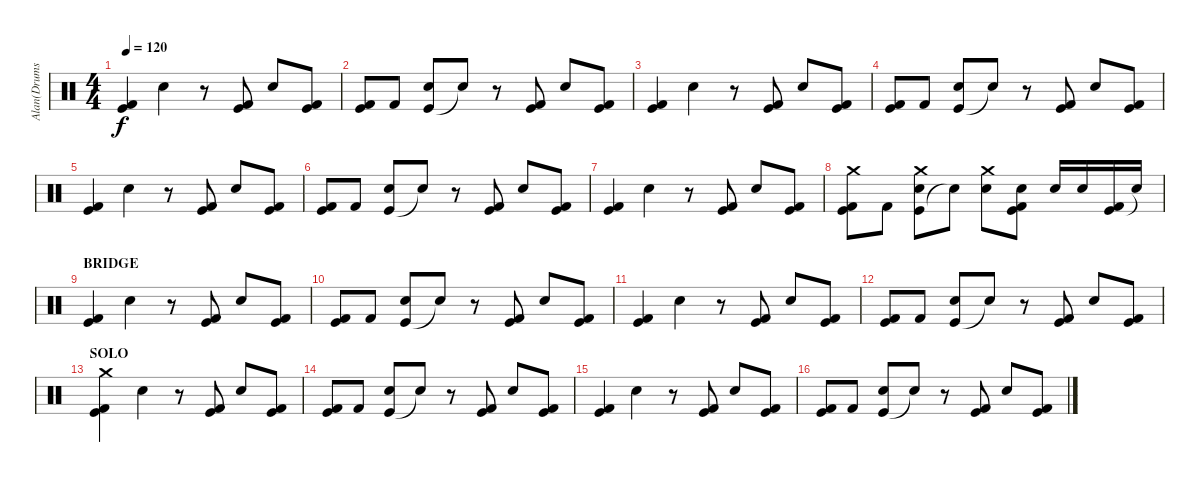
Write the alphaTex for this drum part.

\track ("Alan(Drums)" "Alan(Drums") {instrument percussion}
\staff {score}
\articulation defaults
\ts (4 4)
\tempo 120
\clef neutral
\ks c
("Kick (hit) 2" "Kick (hit)").4{dy f} "Electric Snare (hit)".4 r.8 ("Kick (hit)" "Kick (hit) 2").8 "Electric Snare (hit)".8 ("Kick (hit)" "Kick (hit) 2").8 |
("Kick (hit)" "Kick (hit) 2").8 "Kick (hit) 2".8 ("Kick (hit)" "Electric Snare (hit)").8 "Snare (hit)"{t}.8 r.8 ("Kick (hit)" "Kick (hit) 2").8 "Electric Snare (hit)".8 ("Kick (hit)" "Kick (hit) 2").8 |
("Kick (hit) 2" "Kick (hit)").4 "Electric Snare (hit)".4 r.8 ("Kick (hit)" "Kick (hit) 2").8 "Electric Snare (hit)".8 ("Kick (hit)" "Kick (hit) 2").8 |
("Kick (hit)" "Kick (hit) 2").8 "Kick (hit) 2".8 ("Kick (hit)" "Electric Snare (hit)").8 "Snare (hit)"{t}.8 r.8 ("Kick (hit)" "Kick (hit) 2").8 "Electric Snare (hit)".8 ("Kick (hit)" "Kick (hit) 2").8 |
("Kick (hit) 2" "Kick (hit)").4 "Electric Snare (hit)".4 r.8 ("Kick (hit)" "Kick (hit) 2").8 "Electric Snare (hit)".8 ("Kick (hit)" "Kick (hit) 2").8 |
("Kick (hit)" "Kick (hit) 2").8 "Kick (hit) 2".8 ("Kick (hit)" "Electric Snare (hit)").8 "Snare (hit)"{t}.8 r.8 ("Kick (hit)" "Kick (hit) 2").8 "Electric Snare (hit)".8 ("Kick (hit)" "Kick (hit) 2").8 |
("Kick (hit) 2" "Kick (hit)").4 "Electric Snare (hit)".4 r.8 ("Kick (hit)" "Kick (hit) 2").8 "Electric Snare (hit)".8 ("Kick (hit)" "Kick (hit) 2").8 |
("Kick (hit)" "Kick (hit) 2" "Crash medium (hit)").8 "Kick (hit) 2".8 ("Kick (hit)" "Electric Snare (hit)" "Crash medium (hit)").8 "Snare (hit)"{t}.8 ("Electric Snare (hit)" "Crash medium (hit)").8 ("Kick (hit)" "Kick (hit) 2" "Electric Snare (hit)").8 "Electric Snare (hit)".16 "Electric Snare (hit)".16 ("Kick (hit)" "Kick (hit) 2").16 "Snare (hit)"{t}.16 |
\section ("" "BRIDGE")
("Kick (hit) 2" "Kick (hit)").4 "Electric Snare (hit)".4 r.8 ("Kick (hit)" "Kick (hit) 2").8 "Electric Snare (hit)".8 ("Kick (hit)" "Kick (hit) 2").8 |
("Kick (hit)" "Kick (hit) 2").8 "Kick (hit) 2".8 ("Kick (hit)" "Electric Snare (hit)").8 "Snare (hit)"{t}.8 r.8 ("Kick (hit)" "Kick (hit) 2").8 "Electric Snare (hit)".8 ("Kick (hit)" "Kick (hit) 2").8 |
("Kick (hit) 2" "Kick (hit)").4 "Electric Snare (hit)".4 r.8 ("Kick (hit)" "Kick (hit) 2").8 "Electric Snare (hit)".8 ("Kick (hit)" "Kick (hit) 2").8 |
("Kick (hit)" "Kick (hit) 2").8 "Kick (hit) 2".8 ("Kick (hit)" "Electric Snare (hit)").8 "Snare (hit)"{t}.8 r.8 ("Kick (hit)" "Kick (hit) 2").8 "Electric Snare (hit)".8 ("Kick (hit)" "Kick (hit) 2").8 |
\section ("" "SOLO")
("Kick (hit) 2" "Kick (hit)" "Crash medium (hit)").4 "Electric Snare (hit)".4 r.8 ("Kick (hit)" "Kick (hit) 2").8 "Electric Snare (hit)".8 ("Kick (hit)" "Kick (hit) 2").8 |
("Kick (hit)" "Kick (hit) 2").8 "Kick (hit) 2".8 ("Kick (hit)" "Electric Snare (hit)").8 "Snare (hit)"{t}.8 r.8 ("Kick (hit)" "Kick (hit) 2").8 "Electric Snare (hit)".8 ("Kick (hit)" "Kick (hit) 2").8 |
("Kick (hit) 2" "Kick (hit)").4 "Electric Snare (hit)".4 r.8 ("Kick (hit)" "Kick (hit) 2").8 "Electric Snare (hit)".8 ("Kick (hit)" "Kick (hit) 2").8 |
("Kick (hit)" "Kick (hit) 2").8 "Kick (hit) 2".8 ("Kick (hit)" "Electric Snare (hit)").8 "Snare (hit)"{t}.8 r.8 ("Kick (hit)" "Kick (hit) 2").8 "Electric Snare (hit)".8 ("Kick (hit)" "Kick (hit) 2").8
